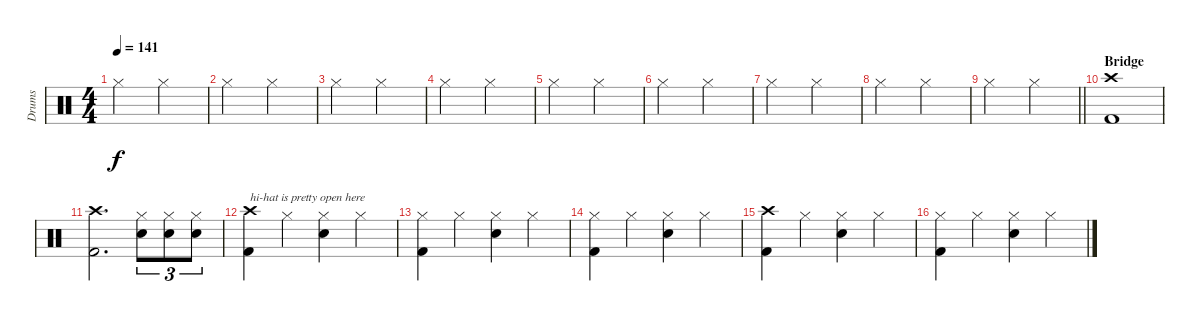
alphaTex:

\track ("Drums" "Drums") {instrument percussion}
\staff {score}
\articulation defaults
\ts (4 4)
\tempo 141
\clef neutral
\ks c "Hi-Hat (closed)".2{dy f} "Hi-Hat (closed)".2
|
"Hi-Hat (closed)".2 "Hi-Hat (closed)".2 |
"Hi-Hat (closed)".2 "Hi-Hat (closed)".2 |
"Hi-Hat (closed)".2 "Hi-Hat (closed)".2 |
"Hi-Hat (closed)".2 "Hi-Hat (closed)".2 |
"Hi-Hat (closed)".2 "Hi-Hat (closed)".2 |
"Hi-Hat (closed)".2 "Hi-Hat (closed)".2 |
"Hi-Hat (closed)".2 "Hi-Hat (closed)".2 |
\barLineRight lightlight "Hi-Hat (closed)".2 "Hi-Hat (closed)".2
|
\section ("" "Bridge")
("Crash high (hit)" "Kick (hit) 2").1{volume 9} |
("Crash high (hit)" "Kick (hit) 2").2{d} ("Hi-Hat (closed)" "Snare (hit) 2").8{tu (3 2)} ("Hi-Hat (closed)" "Snare (hit) 2").8{tu (3 2)} ("Hi-Hat (closed)" "Snare (hit) 2").8{tu (3 2)} |
("Crash high (hit)" "Kick (hit) 2").4{txt "hi-hat is pretty open here"} "Hi-Hat (closed)".4 ("Hi-Hat (closed)" "Electric Snare (hit)").4 "Hi-Hat (closed)".4 |
("Hi-Hat (closed)" "Kick (hit) 2").4 "Hi-Hat (closed)".4 ("Hi-Hat (closed)" "Electric Snare (hit)").4 "Hi-Hat (closed)".4 |
("Hi-Hat (closed)" "Kick (hit) 2").4 "Hi-Hat (closed)".4 ("Hi-Hat (closed)" "Electric Snare (hit)").4 "Hi-Hat (closed)".4 |
("Crash high (hit)" "Kick (hit) 2").4 "Hi-Hat (closed)".4 ("Hi-Hat (closed)" "Electric Snare (hit)").4 "Hi-Hat (closed)".4 |
("Hi-Hat (closed)" "Kick (hit) 2").4 "Hi-Hat (closed)".4 ("Hi-Hat (closed)" "Electric Snare (hit)").4 "Hi-Hat (closed)".4
